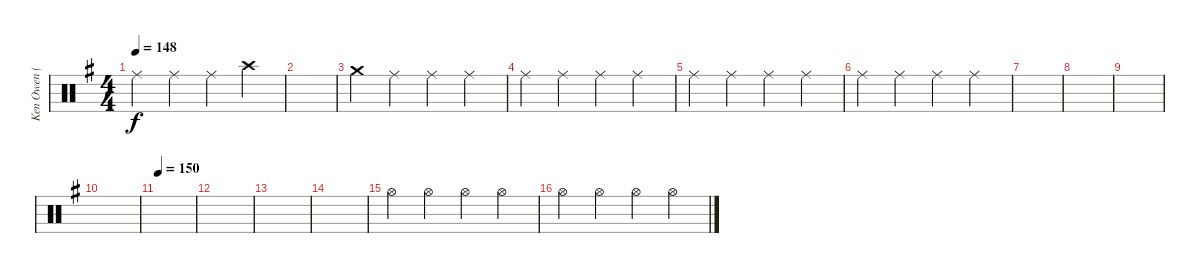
\track ("Ken Owen (Extra Cymbals)" "Ken Owen (") {instrument percussion}
\staff {score}
\articulation defaults
\ts (4 4)
\tempo 148
\clef neutral
\ks g "Ride (middle)".4{dy f} "Ride (middle)".4 "Ride (middle)".4 "Crash high (hit)".4
|
|
"Crash medium (hit)".4 "Ride (middle)".4 "Ride (middle)".4 "Ride (middle)".4 |
"Ride (middle)".4 "Ride (middle)".4 "Ride (middle)".4 "Ride (middle)".4 |
"Ride (middle)".4 "Ride (middle)".4 "Ride (middle)".4 "Ride (middle)".4 |
"Ride (middle)".4 "Ride (middle)".4 "Ride (middle)".4 "Ride (middle)".4 |
|
|
|
|
\tempo 150
|
|
|
|
"Hi-Hat (open)".4 "Hi-Hat (open)".4 "Hi-Hat (open)".4 "Hi-Hat (open)".4 |
"Hi-Hat (open)".4 "Hi-Hat (open)".4 "Hi-Hat (open)".4 "Hi-Hat (open)".4
